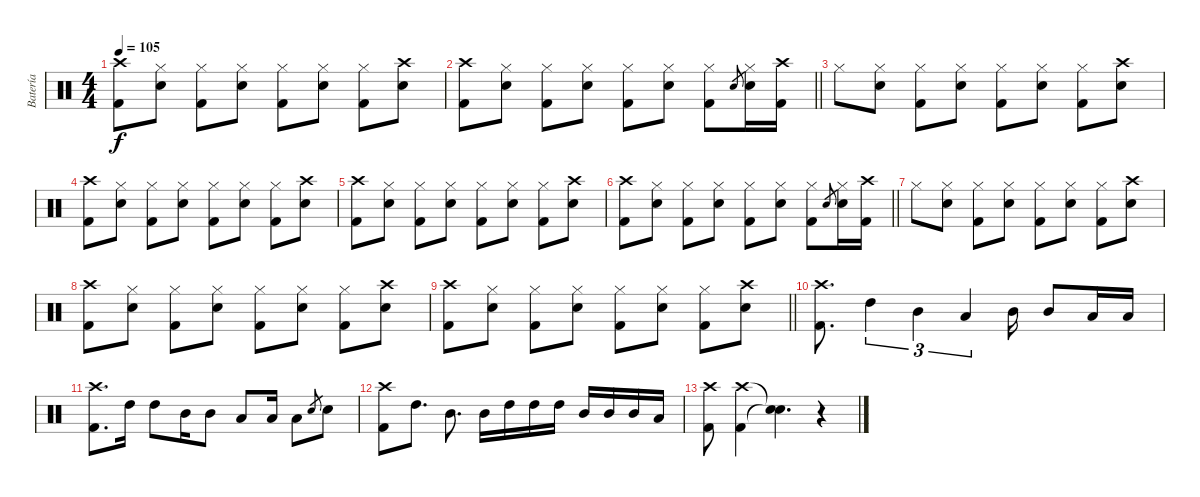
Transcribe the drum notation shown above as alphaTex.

\track ("Batería" "Batería") {instrument percussion}
\staff {score}
\articulation defaults
\ts (4 4)
\tempo 105
\clef neutral
\ks c
("Crash high (hit)" "Kick (hit) 2").8{dy f} ("Hi-Hat (closed)" "Snare (hit) 2").8 ("Hi-Hat (closed)" "Kick (hit) 2").8 ("Hi-Hat (closed)" "Snare (hit) 2").8 ("Hi-Hat (closed)" "Kick (hit) 2").8 ("Hi-Hat (closed)" "Snare (hit) 2").8 ("Hi-Hat (closed)" "Kick (hit) 2").8 ("Crash high (hit)" "Snare (hit) 2").8 |
\barLineRight lightlight
("Crash high (hit)" "Kick (hit) 2").8 ("Hi-Hat (closed)" "Snare (hit) 2").8 ("Hi-Hat (closed)" "Kick (hit) 2").8 ("Hi-Hat (closed)" "Snare (hit) 2").8 ("Hi-Hat (closed)" "Kick (hit) 2").8 ("Hi-Hat (closed)" "Snare (hit) 2").8 ("Hi-Hat (closed)" "Kick (hit) 2").8 "Snare (hit) 2".8{gr} ("Hi-Hat (closed)" "Snare (hit) 2").16 ("Crash high (hit)" "Kick (hit) 2").16 |
"Hi-Hat (closed)".8 ("Hi-Hat (closed)" "Snare (hit) 2").8 ("Hi-Hat (closed)" "Kick (hit) 2").8 ("Hi-Hat (closed)" "Snare (hit) 2").8 ("Hi-Hat (closed)" "Kick (hit) 2").8 ("Hi-Hat (closed)" "Snare (hit) 2").8 ("Hi-Hat (closed)" "Kick (hit) 2").8 ("Crash high (hit)" "Snare (hit) 2").8 |
("Crash high (hit)" "Kick (hit) 2").8 ("Hi-Hat (closed)" "Snare (hit) 2").8 ("Hi-Hat (closed)" "Kick (hit) 2").8 ("Hi-Hat (closed)" "Snare (hit) 2").8 ("Hi-Hat (closed)" "Kick (hit) 2").8 ("Hi-Hat (closed)" "Snare (hit) 2").8 ("Hi-Hat (closed)" "Kick (hit) 2").8 ("Crash high (hit)" "Snare (hit) 2").8 |
("Crash high (hit)" "Kick (hit) 2").8 ("Hi-Hat (closed)" "Snare (hit) 2").8 ("Hi-Hat (closed)" "Kick (hit) 2").8 ("Hi-Hat (closed)" "Snare (hit) 2").8 ("Hi-Hat (closed)" "Kick (hit) 2").8 ("Hi-Hat (closed)" "Snare (hit) 2").8 ("Hi-Hat (closed)" "Kick (hit) 2").8 ("Crash high (hit)" "Snare (hit) 2").8 |
\barLineRight lightlight
("Crash high (hit)" "Kick (hit) 2").8 ("Hi-Hat (closed)" "Snare (hit) 2").8 ("Hi-Hat (closed)" "Kick (hit) 2").8 ("Hi-Hat (closed)" "Snare (hit) 2").8 ("Hi-Hat (closed)" "Kick (hit) 2").8 ("Hi-Hat (closed)" "Snare (hit) 2").8 ("Hi-Hat (closed)" "Kick (hit) 2").8 "Snare (hit) 2".8{gr} ("Hi-Hat (closed)" "Snare (hit) 2").16 ("Crash high (hit)" "Kick (hit) 2").16 |
"Hi-Hat (closed)".8 ("Hi-Hat (closed)" "Snare (hit) 2").8 ("Hi-Hat (closed)" "Kick (hit) 2").8 ("Hi-Hat (closed)" "Snare (hit) 2").8 ("Hi-Hat (closed)" "Kick (hit) 2").8 ("Hi-Hat (closed)" "Snare (hit) 2").8 ("Hi-Hat (closed)" "Kick (hit) 2").8 ("Crash high (hit)" "Snare (hit) 2").8 |
("Crash high (hit)" "Kick (hit) 2").8 ("Hi-Hat (closed)" "Snare (hit) 2").8 ("Hi-Hat (closed)" "Kick (hit) 2").8 ("Hi-Hat (closed)" "Snare (hit) 2").8 ("Hi-Hat (closed)" "Kick (hit) 2").8 ("Hi-Hat (closed)" "Snare (hit) 2").8 ("Hi-Hat (closed)" "Kick (hit) 2").8 ("Crash high (hit)" "Snare (hit) 2").8 |
\barLineRight lightlight
("Crash high (hit)" "Kick (hit) 2").8 ("Hi-Hat (closed)" "Snare (hit) 2").8 ("Hi-Hat (closed)" "Kick (hit) 2").8 ("Hi-Hat (closed)" "Snare (hit) 2").8 ("Hi-Hat (closed)" "Kick (hit) 2").8 ("Hi-Hat (closed)" "Snare (hit) 2").8 ("Hi-Hat (closed)" "Kick (hit) 2").8 ("Crash high (hit)" "Snare (hit) 2").8 |
("Crash high (hit)" "Kick (hit) 2").8{d} "High Tom (hit)".4{tu (3 2)} "Mid Tom (hit)".4{tu (3 2)} "Low Tom (hit)".4{tu (3 2)} "Mid Tom (hit)".16 "Mid Tom (hit)".8 "Low Tom (hit)".16 "Low Tom (hit)".16 |
("Crash high (hit)" "Kick (hit) 2").8{d} "High Tom (hit)".16 "High Tom (hit)".8 "Mid Tom (hit)".16 "Mid Tom (hit)".8 "Low Tom (hit)".8 "Low Tom (hit)".16 "Low Tom (hit)".8 "Snare (hit) 2".8{gr} "Snare (hit) 2".8 |
("Crash high (hit)" "Kick (hit) 2").8 "High Tom (hit)".8{d} "Mid Tom (hit)".8{d} "Mid Tom (hit)".16 "High Tom (hit)".16 "High Tom (hit)".16 "High Tom (hit)".16 "Mid Tom (hit)".16 "Mid Tom (hit)".16 "Mid Tom (hit)".16 "Low Tom (hit)".16 |
("Kick (hit) 2" "Crash high (hit)").8 ("Kick (hit) 2" "Crash high (hit)").4 ("Snare (hit)"{t} "Snare (hit)"{t}).4{d} r.4
